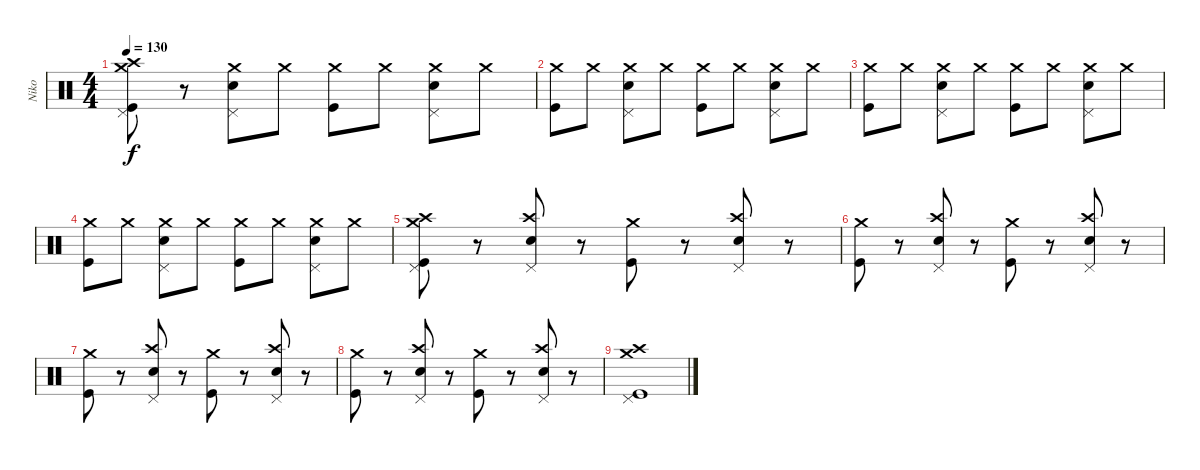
\track ("Niko" "Niko") {instrument percussion}
\staff {score}
\articulation defaults
\ts (4 4)
\tempo 130
\clef neutral
\ks c
("Kick (hit)" "Crash medium (hit)" "Pedal Hi-Hat (hit)" "Crash high (hit)").8{dy f} r.8 ("Snare (hit) 2" "Crash medium (hit)" "Pedal Hi-Hat (hit)").8 "Crash medium (hit)".8 ("Kick (hit)" "Crash medium (hit)").8 "Crash medium (hit)".8 ("Snare (hit) 2" "Crash medium (hit)" "Pedal Hi-Hat (hit)").8 "Crash medium (hit)".8 |
("Kick (hit)" "Crash medium (hit)").8 "Crash medium (hit)".8 ("Snare (hit) 2" "Crash medium (hit)" "Pedal Hi-Hat (hit)").8 "Crash medium (hit)".8 ("Kick (hit)" "Crash medium (hit)").8 "Crash medium (hit)".8 ("Snare (hit) 2" "Crash medium (hit)" "Pedal Hi-Hat (hit)").8 "Crash medium (hit)".8 |
("Kick (hit)" "Crash medium (hit)").8 "Crash medium (hit)".8 ("Snare (hit) 2" "Crash medium (hit)" "Pedal Hi-Hat (hit)").8 "Crash medium (hit)".8 ("Kick (hit)" "Crash medium (hit)").8 "Crash medium (hit)".8 ("Snare (hit) 2" "Crash medium (hit)" "Pedal Hi-Hat (hit)").8 "Crash medium (hit)".8 |
("Kick (hit)" "Crash medium (hit)").8 "Crash medium (hit)".8 ("Snare (hit) 2" "Crash medium (hit)" "Pedal Hi-Hat (hit)").8 "Crash medium (hit)".8 ("Kick (hit)" "Crash medium (hit)").8 "Crash medium (hit)".8 ("Snare (hit) 2" "Crash medium (hit)" "Pedal Hi-Hat (hit)").8 "Crash medium (hit)".8 |
("Kick (hit)" "Crash medium (hit)" "Pedal Hi-Hat (hit)" "Crash high (hit)").8 r.8 ("Snare (hit) 2" "Crash high (hit)" "Pedal Hi-Hat (hit)").8 r.8 ("Kick (hit)" "Crash medium (hit)").8 r.8 ("Snare (hit) 2" "Crash high (hit)" "Pedal Hi-Hat (hit)").8 r.8 |
("Kick (hit)" "Crash medium (hit)").8 r.8 ("Snare (hit) 2" "Crash high (hit)" "Pedal Hi-Hat (hit)").8 r.8 ("Kick (hit)" "Crash medium (hit)").8 r.8 ("Snare (hit) 2" "Crash high (hit)" "Pedal Hi-Hat (hit)").8 r.8 |
("Kick (hit)" "Crash medium (hit)").8 r.8 ("Snare (hit) 2" "Crash high (hit)" "Pedal Hi-Hat (hit)").8 r.8 ("Kick (hit)" "Crash medium (hit)").8 r.8 ("Snare (hit) 2" "Crash high (hit)" "Pedal Hi-Hat (hit)").8 r.8 |
("Kick (hit)" "Crash medium (hit)").8 r.8 ("Snare (hit) 2" "Crash high (hit)" "Pedal Hi-Hat (hit)").8 r.8 ("Kick (hit)" "Crash medium (hit)").8 r.8 ("Snare (hit) 2" "Crash high (hit)" "Pedal Hi-Hat (hit)").8 r.8 |
("Kick (hit)" "Crash medium (hit)" "Pedal Hi-Hat (hit)" "Crash high (hit)").1
